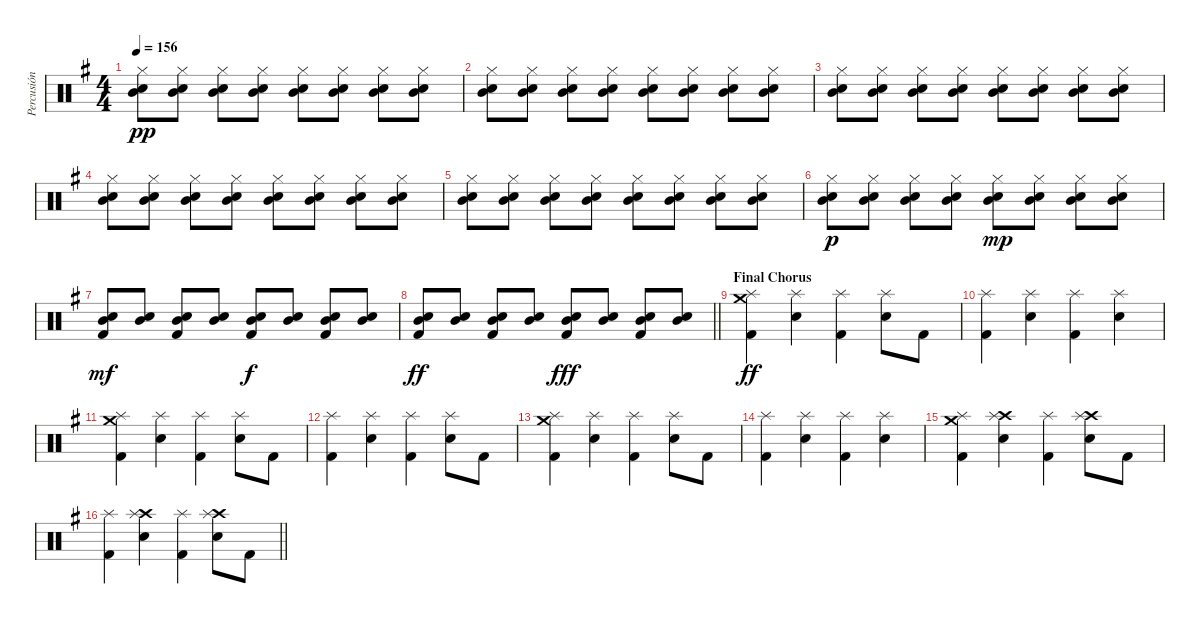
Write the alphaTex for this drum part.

\track ("Percusión" "Percusión") {instrument percussion}
\staff {score}
\articulation defaults
\ts (4 4)
\tempo 156
\clef neutral
\ks eminor
("Hi-Hat (closed)" "Mid Tom (hit)" "Electric Snare (hit)").8{dy pp} ("Hi-Hat (closed)" "Mid Tom (hit)" "Electric Snare (hit)").8 ("Hi-Hat (closed)" "Mid Tom (hit)" "Electric Snare (hit)").8 ("Hi-Hat (closed)" "Mid Tom (hit)" "Electric Snare (hit)").8 ("Hi-Hat (closed)" "Mid Tom (hit)" "Electric Snare (hit)").8 ("Hi-Hat (closed)" "Mid Tom (hit)" "Electric Snare (hit)").8 ("Hi-Hat (closed)" "Mid Tom (hit)" "Electric Snare (hit)").8 ("Hi-Hat (closed)" "Mid Tom (hit)" "Electric Snare (hit)").8 |
("Hi-Hat (closed)" "Mid Tom (hit)" "Electric Snare (hit)").8 ("Hi-Hat (closed)" "Mid Tom (hit)" "Electric Snare (hit)").8 ("Hi-Hat (closed)" "Mid Tom (hit)" "Electric Snare (hit)").8 ("Hi-Hat (closed)" "Mid Tom (hit)" "Electric Snare (hit)").8 ("Hi-Hat (closed)" "Mid Tom (hit)" "Electric Snare (hit)").8 ("Hi-Hat (closed)" "Mid Tom (hit)" "Electric Snare (hit)").8 ("Hi-Hat (closed)" "Mid Tom (hit)" "Electric Snare (hit)").8 ("Hi-Hat (closed)" "Mid Tom (hit)" "Electric Snare (hit)").8 |
("Hi-Hat (closed)" "Mid Tom (hit)" "Electric Snare (hit)").8 ("Hi-Hat (closed)" "Mid Tom (hit)" "Electric Snare (hit)").8 ("Hi-Hat (closed)" "Mid Tom (hit)" "Electric Snare (hit)").8 ("Hi-Hat (closed)" "Mid Tom (hit)" "Electric Snare (hit)").8 ("Hi-Hat (closed)" "Mid Tom (hit)" "Electric Snare (hit)").8 ("Hi-Hat (closed)" "Mid Tom (hit)" "Electric Snare (hit)").8 ("Hi-Hat (closed)" "Mid Tom (hit)" "Electric Snare (hit)").8 ("Hi-Hat (closed)" "Mid Tom (hit)" "Electric Snare (hit)").8 |
("Hi-Hat (closed)" "Mid Tom (hit)" "Electric Snare (hit)").8 ("Hi-Hat (closed)" "Mid Tom (hit)" "Electric Snare (hit)").8 ("Hi-Hat (closed)" "Mid Tom (hit)" "Electric Snare (hit)").8 ("Hi-Hat (closed)" "Mid Tom (hit)" "Electric Snare (hit)").8 ("Hi-Hat (closed)" "Mid Tom (hit)" "Electric Snare (hit)").8 ("Hi-Hat (closed)" "Mid Tom (hit)" "Electric Snare (hit)").8 ("Hi-Hat (closed)" "Mid Tom (hit)" "Electric Snare (hit)").8 ("Hi-Hat (closed)" "Mid Tom (hit)" "Electric Snare (hit)").8 |
("Hi-Hat (closed)" "Mid Tom (hit)" "Electric Snare (hit)").8 ("Hi-Hat (closed)" "Mid Tom (hit)" "Electric Snare (hit)").8 ("Hi-Hat (closed)" "Mid Tom (hit)" "Electric Snare (hit)").8 ("Hi-Hat (closed)" "Mid Tom (hit)" "Electric Snare (hit)").8 ("Hi-Hat (closed)" "Mid Tom (hit)" "Electric Snare (hit)").8 ("Hi-Hat (closed)" "Mid Tom (hit)" "Electric Snare (hit)").8 ("Hi-Hat (closed)" "Mid Tom (hit)" "Electric Snare (hit)").8 ("Hi-Hat (closed)" "Mid Tom (hit)" "Electric Snare (hit)").8 |
("Hi-Hat (closed)" "Mid Tom (hit)" "Electric Snare (hit)").8{dy p} ("Hi-Hat (closed)" "Mid Tom (hit)" "Electric Snare (hit)").8 ("Hi-Hat (closed)" "Mid Tom (hit)" "Electric Snare (hit)").8 ("Hi-Hat (closed)" "Mid Tom (hit)" "Electric Snare (hit)").8 ("Hi-Hat (closed)" "Mid Tom (hit)" "Electric Snare (hit)").8{dy mp} ("Hi-Hat (closed)" "Mid Tom (hit)" "Electric Snare (hit)").8 ("Hi-Hat (closed)" "Mid Tom (hit)" "Electric Snare (hit)").8 ("Hi-Hat (closed)" "Mid Tom (hit)" "Electric Snare (hit)").8 |
("Mid Tom (hit)" "Electric Snare (hit)" "Kick (hit) 2").8{dy mf} ("Mid Tom (hit)" "Electric Snare (hit)").8 ("Mid Tom (hit)" "Electric Snare (hit)" "Kick (hit) 2").8 ("Mid Tom (hit)" "Electric Snare (hit)").8 ("Mid Tom (hit)" "Electric Snare (hit)" "Kick (hit) 2").8{dy f} ("Mid Tom (hit)" "Electric Snare (hit)").8 ("Mid Tom (hit)" "Electric Snare (hit)" "Kick (hit) 2").8 ("Mid Tom (hit)" "Electric Snare (hit)").8 |
\barLineRight lightlight
("Mid Tom (hit)" "Electric Snare (hit)" "Kick (hit) 2").8{dy ff} ("Mid Tom (hit)" "Electric Snare (hit)").8 ("Mid Tom (hit)" "Electric Snare (hit)" "Kick (hit) 2").8 ("Mid Tom (hit)" "Electric Snare (hit)").8 ("Mid Tom (hit)" "Electric Snare (hit)" "Kick (hit) 2").8{dy fff} ("Mid Tom (hit)" "Electric Snare (hit)").8 ("Mid Tom (hit)" "Electric Snare (hit)" "Kick (hit) 2").8 ("Mid Tom (hit)" "Electric Snare (hit)").8 |
\section ("" "Final Chorus")
("Crash medium (hit)" "Splash (hit)" "Kick (hit) 2").4{dy ff} ("Splash (hit)" "Electric Snare (hit)").4 ("Splash (hit)" "Kick (hit) 2").4 ("Splash (hit)" "Electric Snare (hit)").8 "Kick (hit) 2".8 |
("Splash (hit)" "Kick (hit) 2").4 ("Splash (hit)" "Electric Snare (hit)").4 ("Splash (hit)" "Kick (hit) 2").4 ("Splash (hit)" "Electric Snare (hit)").4 |
("Crash medium (hit)" "Splash (hit)" "Kick (hit) 2").4 ("Splash (hit)" "Electric Snare (hit)").4 ("Splash (hit)" "Kick (hit) 2").4 ("Splash (hit)" "Electric Snare (hit)").8 "Kick (hit) 2".8 |
("Splash (hit)" "Kick (hit) 2").4 ("Splash (hit)" "Electric Snare (hit)").4 ("Splash (hit)" "Kick (hit) 2").4 ("Splash (hit)" "Electric Snare (hit)").8 "Kick (hit) 2".8 |
("Crash medium (hit)" "Splash (hit)" "Kick (hit) 2").4 ("Splash (hit)" "Electric Snare (hit)").4 ("Splash (hit)" "Kick (hit) 2").4 ("Splash (hit)" "Electric Snare (hit)").8 "Kick (hit) 2".8 |
("Splash (hit)" "Kick (hit) 2").4 ("Splash (hit)" "Electric Snare (hit)").4 ("Splash (hit)" "Kick (hit) 2").4 ("Splash (hit)" "Electric Snare (hit)").4 |
("Crash medium (hit)" "Splash (hit)" "Kick (hit) 2").4 ("Crash high (hit)" "Splash (hit)" "Electric Snare (hit)").4 ("Splash (hit)" "Kick (hit) 2").4 ("Crash high (hit)" "Splash (hit)" "Electric Snare (hit)").8 "Kick (hit) 2".8 |
\barLineRight lightlight
("Splash (hit)" "Kick (hit) 2").4 ("Crash high (hit)" "Splash (hit)" "Electric Snare (hit)").4 ("Splash (hit)" "Kick (hit) 2").4 ("Crash high (hit)" "Splash (hit)" "Electric Snare (hit)").8 "Kick (hit) 2".8
